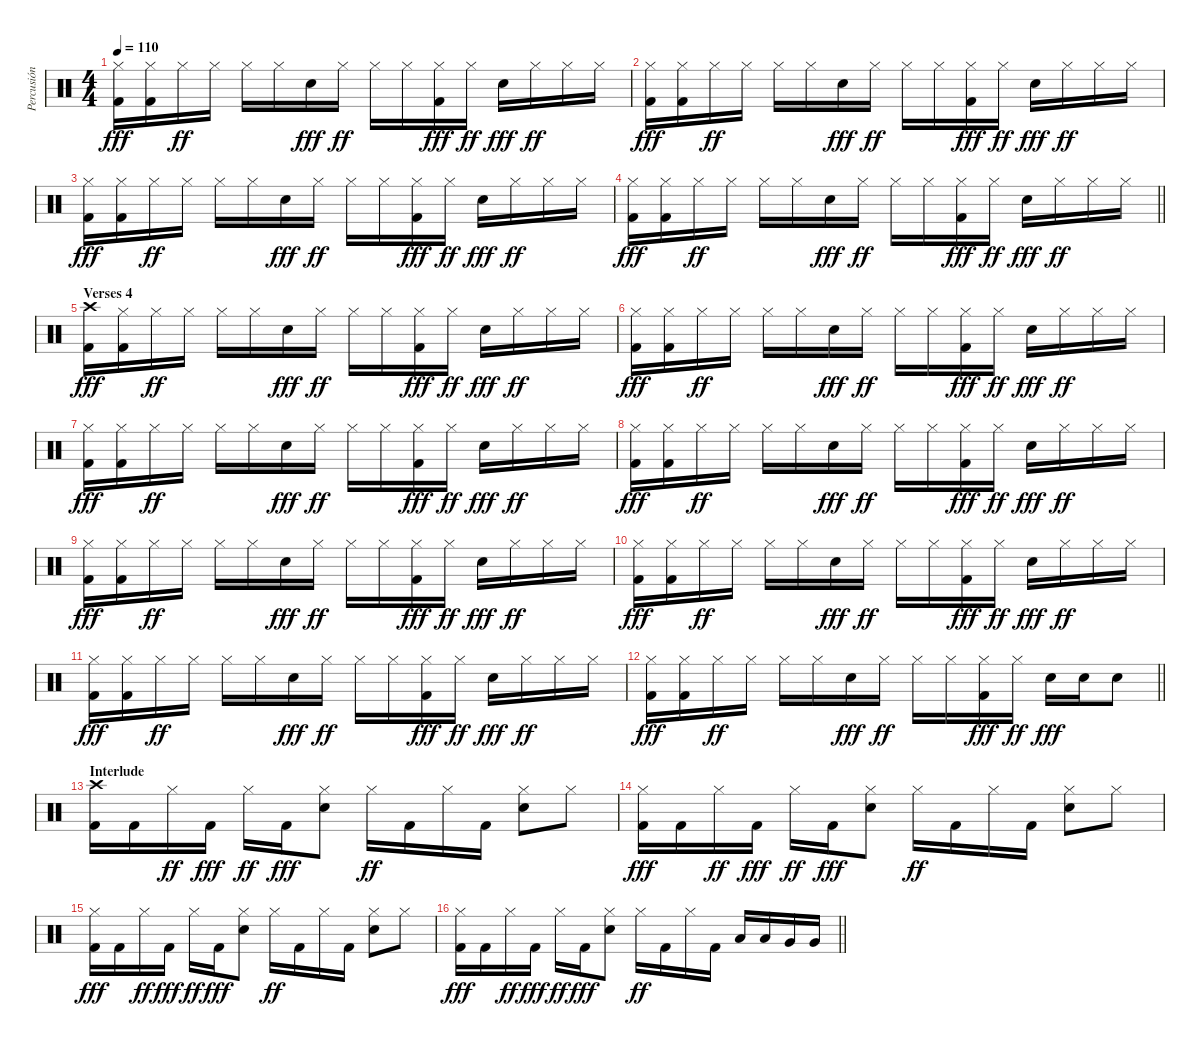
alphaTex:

\track ("Percusión" "Percusión") {instrument percussion}
\staff {score}
\articulation defaults
\ts (4 4)
\tempo 110
\clef neutral
\ks c
("Hi-Hat (closed)" "Kick (hit) 2").16{dy fff} ("Hi-Hat (closed)" "Kick (hit) 2").16 "Hi-Hat (closed)".16{dy ff} "Hi-Hat (closed)".16 "Hi-Hat (closed)".16 "Hi-Hat (closed)".16 "Electric Snare (hit)".16{dy fff} "Hi-Hat (closed)".16{dy ff} "Hi-Hat (closed)".16 "Hi-Hat (closed)".16 ("Hi-Hat (closed)" "Kick (hit) 2").16{dy fff} "Hi-Hat (closed)".16{dy ff} "Electric Snare (hit)".16{dy fff} "Hi-Hat (closed)".16{dy ff} "Hi-Hat (closed)".16 "Hi-Hat (closed)".16 |
("Hi-Hat (closed)" "Kick (hit) 2").16{dy fff} ("Hi-Hat (closed)" "Kick (hit) 2").16 "Hi-Hat (closed)".16{dy ff} "Hi-Hat (closed)".16 "Hi-Hat (closed)".16 "Hi-Hat (closed)".16 "Electric Snare (hit)".16{dy fff} "Hi-Hat (closed)".16{dy ff} "Hi-Hat (closed)".16 "Hi-Hat (closed)".16 ("Hi-Hat (closed)" "Kick (hit) 2").16{dy fff} "Hi-Hat (closed)".16{dy ff} "Electric Snare (hit)".16{dy fff} "Hi-Hat (closed)".16{dy ff} "Hi-Hat (closed)".16 "Hi-Hat (closed)".16 |
("Hi-Hat (closed)" "Kick (hit) 2").16{dy fff} ("Hi-Hat (closed)" "Kick (hit) 2").16 "Hi-Hat (closed)".16{dy ff} "Hi-Hat (closed)".16 "Hi-Hat (closed)".16 "Hi-Hat (closed)".16 "Electric Snare (hit)".16{dy fff} "Hi-Hat (closed)".16{dy ff} "Hi-Hat (closed)".16 "Hi-Hat (closed)".16 ("Hi-Hat (closed)" "Kick (hit) 2").16{dy fff} "Hi-Hat (closed)".16{dy ff} "Electric Snare (hit)".16{dy fff} "Hi-Hat (closed)".16{dy ff} "Hi-Hat (closed)".16 "Hi-Hat (closed)".16 |
\barLineRight lightlight
("Hi-Hat (closed)" "Kick (hit) 2").16{dy fff} ("Hi-Hat (closed)" "Kick (hit) 2").16 "Hi-Hat (closed)".16{dy ff} "Hi-Hat (closed)".16 "Hi-Hat (closed)".16 "Hi-Hat (closed)".16 "Electric Snare (hit)".16{dy fff} "Hi-Hat (closed)".16{dy ff} "Hi-Hat (closed)".16 "Hi-Hat (closed)".16 ("Hi-Hat (closed)" "Kick (hit) 2").16{dy fff} "Hi-Hat (closed)".16{dy ff} "Electric Snare (hit)".16{dy fff} "Hi-Hat (closed)".16{dy ff} "Hi-Hat (closed)".16 "Hi-Hat (closed)".16 |
\section ("" "Verses 4")
("Crash high (hit)" "Kick (hit) 2").16{dy fff} ("Hi-Hat (closed)" "Kick (hit) 2").16 "Hi-Hat (closed)".16{dy ff} "Hi-Hat (closed)".16 "Hi-Hat (closed)".16 "Hi-Hat (closed)".16 "Electric Snare (hit)".16{dy fff} "Hi-Hat (closed)".16{dy ff} "Hi-Hat (closed)".16 "Hi-Hat (closed)".16 ("Hi-Hat (closed)" "Kick (hit) 2").16{dy fff} "Hi-Hat (closed)".16{dy ff} "Electric Snare (hit)".16{dy fff} "Hi-Hat (closed)".16{dy ff} "Hi-Hat (closed)".16 "Hi-Hat (closed)".16 |
("Hi-Hat (closed)" "Kick (hit) 2").16{dy fff} ("Hi-Hat (closed)" "Kick (hit) 2").16 "Hi-Hat (closed)".16{dy ff} "Hi-Hat (closed)".16 "Hi-Hat (closed)".16 "Hi-Hat (closed)".16 "Electric Snare (hit)".16{dy fff} "Hi-Hat (closed)".16{dy ff} "Hi-Hat (closed)".16 "Hi-Hat (closed)".16 ("Hi-Hat (closed)" "Kick (hit) 2").16{dy fff} "Hi-Hat (closed)".16{dy ff} "Electric Snare (hit)".16{dy fff} "Hi-Hat (closed)".16{dy ff} "Hi-Hat (closed)".16 "Hi-Hat (closed)".16 |
("Hi-Hat (closed)" "Kick (hit) 2").16{dy fff} ("Hi-Hat (closed)" "Kick (hit) 2").16 "Hi-Hat (closed)".16{dy ff} "Hi-Hat (closed)".16 "Hi-Hat (closed)".16 "Hi-Hat (closed)".16 "Electric Snare (hit)".16{dy fff} "Hi-Hat (closed)".16{dy ff} "Hi-Hat (closed)".16 "Hi-Hat (closed)".16 ("Hi-Hat (closed)" "Kick (hit) 2").16{dy fff} "Hi-Hat (closed)".16{dy ff} "Electric Snare (hit)".16{dy fff} "Hi-Hat (closed)".16{dy ff} "Hi-Hat (closed)".16 "Hi-Hat (closed)".16 |
("Hi-Hat (closed)" "Kick (hit) 2").16{dy fff} ("Hi-Hat (closed)" "Kick (hit) 2").16 "Hi-Hat (closed)".16{dy ff} "Hi-Hat (closed)".16 "Hi-Hat (closed)".16 "Hi-Hat (closed)".16 "Electric Snare (hit)".16{dy fff} "Hi-Hat (closed)".16{dy ff} "Hi-Hat (closed)".16 "Hi-Hat (closed)".16 ("Hi-Hat (closed)" "Kick (hit) 2").16{dy fff} "Hi-Hat (closed)".16{dy ff} "Electric Snare (hit)".16{dy fff} "Hi-Hat (closed)".16{dy ff} "Hi-Hat (closed)".16 "Hi-Hat (closed)".16 |
("Hi-Hat (closed)" "Kick (hit) 2").16{dy fff} ("Hi-Hat (closed)" "Kick (hit) 2").16 "Hi-Hat (closed)".16{dy ff} "Hi-Hat (closed)".16 "Hi-Hat (closed)".16 "Hi-Hat (closed)".16 "Electric Snare (hit)".16{dy fff} "Hi-Hat (closed)".16{dy ff} "Hi-Hat (closed)".16 "Hi-Hat (closed)".16 ("Hi-Hat (closed)" "Kick (hit) 2").16{dy fff} "Hi-Hat (closed)".16{dy ff} "Electric Snare (hit)".16{dy fff} "Hi-Hat (closed)".16{dy ff} "Hi-Hat (closed)".16 "Hi-Hat (closed)".16 |
("Hi-Hat (closed)" "Kick (hit) 2").16{dy fff} ("Hi-Hat (closed)" "Kick (hit) 2").16 "Hi-Hat (closed)".16{dy ff} "Hi-Hat (closed)".16 "Hi-Hat (closed)".16 "Hi-Hat (closed)".16 "Electric Snare (hit)".16{dy fff} "Hi-Hat (closed)".16{dy ff} "Hi-Hat (closed)".16 "Hi-Hat (closed)".16 ("Hi-Hat (closed)" "Kick (hit) 2").16{dy fff} "Hi-Hat (closed)".16{dy ff} "Electric Snare (hit)".16{dy fff} "Hi-Hat (closed)".16{dy ff} "Hi-Hat (closed)".16 "Hi-Hat (closed)".16 |
("Hi-Hat (closed)" "Kick (hit) 2").16{dy fff} ("Hi-Hat (closed)" "Kick (hit) 2").16 "Hi-Hat (closed)".16{dy ff} "Hi-Hat (closed)".16 "Hi-Hat (closed)".16 "Hi-Hat (closed)".16 "Electric Snare (hit)".16{dy fff} "Hi-Hat (closed)".16{dy ff} "Hi-Hat (closed)".16 "Hi-Hat (closed)".16 ("Hi-Hat (closed)" "Kick (hit) 2").16{dy fff} "Hi-Hat (closed)".16{dy ff} "Electric Snare (hit)".16{dy fff} "Hi-Hat (closed)".16{dy ff} "Hi-Hat (closed)".16 "Hi-Hat (closed)".16 |
\barLineRight lightlight
("Hi-Hat (closed)" "Kick (hit) 2").16{dy fff} ("Hi-Hat (closed)" "Kick (hit) 2").16 "Hi-Hat (closed)".16{dy ff} "Hi-Hat (closed)".16 "Hi-Hat (closed)".16 "Hi-Hat (closed)".16 "Electric Snare (hit)".16{dy fff} "Hi-Hat (closed)".16{dy ff} "Hi-Hat (closed)".16 "Hi-Hat (closed)".16 ("Hi-Hat (closed)" "Kick (hit) 2").16{dy fff} "Hi-Hat (closed)".16{dy ff} "Electric Snare (hit)".16{dy fff} "Electric Snare (hit)".16 "Electric Snare (hit)".8 |
\section ("" "Interlude")
("Crash high (hit)" "Kick (hit) 2").16 "Kick (hit) 2".16 "Hi-Hat (closed)".16{dy ff} "Kick (hit) 2".16{dy fff} "Hi-Hat (closed)".16{dy ff} "Kick (hit) 2".16{dy fff} ("Hi-Hat (closed)" "Electric Snare (hit)").8 "Hi-Hat (closed)".16{dy ff} "Kick (hit) 2".16 "Hi-Hat (closed)".16 "Kick (hit) 2".16 ("Hi-Hat (closed)" "Electric Snare (hit)").8 "Hi-Hat (closed)".8 |
("Hi-Hat (closed)" "Kick (hit) 2").16{dy fff} "Kick (hit) 2".16 "Hi-Hat (closed)".16{dy ff} "Kick (hit) 2".16{dy fff} "Hi-Hat (closed)".16{dy ff} "Kick (hit) 2".16{dy fff} ("Hi-Hat (closed)" "Electric Snare (hit)").8 "Hi-Hat (closed)".16{dy ff} "Kick (hit) 2".16 "Hi-Hat (closed)".16 "Kick (hit) 2".16 ("Hi-Hat (closed)" "Electric Snare (hit)").8 "Hi-Hat (closed)".8 |
("Hi-Hat (closed)" "Kick (hit) 2").16{dy fff} "Kick (hit) 2".16 "Hi-Hat (closed)".16{dy ff} "Kick (hit) 2".16{dy fff} "Hi-Hat (closed)".16{dy ff} "Kick (hit) 2".16{dy fff} ("Hi-Hat (closed)" "Electric Snare (hit)").8 "Hi-Hat (closed)".16{dy ff} "Kick (hit) 2".16 "Hi-Hat (closed)".16 "Kick (hit) 2".16 ("Hi-Hat (closed)" "Electric Snare (hit)").8 "Hi-Hat (closed)".8 |
\barLineRight lightlight
("Hi-Hat (closed)" "Kick (hit) 2").16{dy fff} "Kick (hit) 2".16 "Hi-Hat (closed)".16{dy ff} "Kick (hit) 2".16{dy fff} "Hi-Hat (closed)".16{dy ff} "Kick (hit) 2".16{dy fff} ("Hi-Hat (closed)" "Electric Snare (hit)").8 "Hi-Hat (closed)".16{dy ff} "Kick (hit) 2".16 "Hi-Hat (closed)".16 "Kick (hit) 2".16 "Low Tom (hit)".16 "Low Tom (hit)".16 "Very Low Tom (hit)".16 "Very Low Tom (hit)".16
